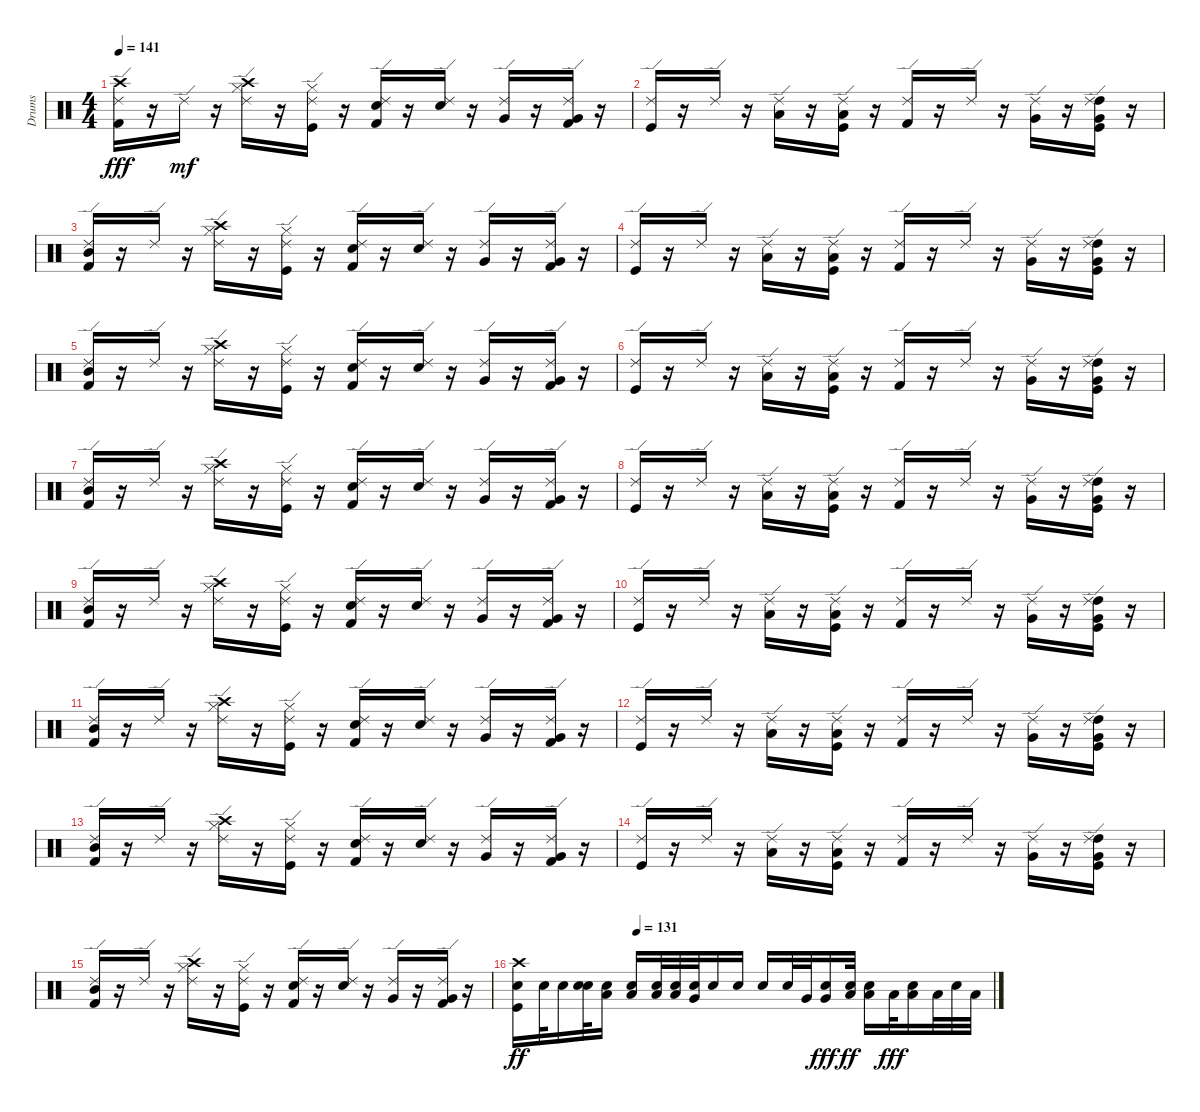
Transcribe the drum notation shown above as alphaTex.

\track ("Drums" "Drums") {instrument percussion}
\staff {score}
\articulation defaults
\ts (4 4)
\tempo 141
\clef neutral
\ks c
("Kick (hit) 2" "Ride (edge) 2" "Crash high (hit)").16{dy fff} r.16 "Ride (edge) 2".16{dy mf} r.16 ("Crash high (hit)" "Hi-Hat (closed)" "Ride (edge) 2").16 r.16 ("Kick (hit)" "Hi-Hat (closed)" "Ride (edge) 2").16 r.16 ("Snare (hit) 2" "Kick (hit) 2" "Ride (edge) 2").16 r.16 ("Snare (hit) 2" "Ride (edge) 2").16 r.16 ("Very Low Tom (hit)" "Ride (edge) 2").16 r.16 ("Kick (hit) 2" "Very Low Tom (hit)" "Ride (edge) 2").16 r.16 |
("Kick (hit)" "Ride (edge) 2").16 r.16 "Ride (edge) 2".16 r.16 ("Low Floor Tom (hit)" "Ride (edge) 2").16 r.16 ("Kick (hit)" "Low Floor Tom (hit)" "Ride (edge) 2").16 r.16 ("Kick (hit) 2" "Ride (edge) 2").16 r.16 "Ride (edge) 2".16 r.16 ("Very Low Tom (hit)" "Ride (edge) 2").16 r.16 ("High Tom (hit)" "Kick (hit)" "Very Low Tom (hit)" "Ride (edge) 2").16 r.16 |
("Kick (hit) 2" "Ride (edge) 2" "Mid Tom (hit)").16 r.16 "Ride (edge) 2".16 r.16 ("Crash high (hit)" "Hi-Hat (closed)" "Ride (edge) 2").16 r.16 ("Kick (hit)" "Hi-Hat (closed)" "Ride (edge) 2").16 r.16 ("Snare (hit) 2" "Kick (hit) 2" "Ride (edge) 2").16 r.16 ("Snare (hit) 2" "Ride (edge) 2").16 r.16 ("Very Low Tom (hit)" "Ride (edge) 2").16 r.16 ("Kick (hit) 2" "Very Low Tom (hit)" "Ride (edge) 2").16 r.16 |
("Kick (hit)" "Ride (edge) 2").16 r.16 "Ride (edge) 2".16 r.16 ("Low Floor Tom (hit)" "Ride (edge) 2").16 r.16 ("Kick (hit)" "Low Floor Tom (hit)" "Ride (edge) 2").16 r.16 ("Kick (hit) 2" "Ride (edge) 2").16 r.16 "Ride (edge) 2".16 r.16 ("Very Low Tom (hit)" "Ride (edge) 2").16 r.16 ("High Tom (hit)" "Kick (hit)" "Very Low Tom (hit)" "Ride (edge) 2").16 r.16 |
("Kick (hit) 2" "Ride (edge) 2" "Mid Tom (hit)").16 r.16 "Ride (edge) 2".16 r.16 ("Crash high (hit)" "Hi-Hat (closed)" "Ride (edge) 2").16 r.16 ("Kick (hit)" "Hi-Hat (closed)" "Ride (edge) 2").16 r.16 ("Snare (hit) 2" "Kick (hit) 2" "Ride (edge) 2").16 r.16 ("Snare (hit) 2" "Ride (edge) 2").16 r.16 ("Very Low Tom (hit)" "Ride (edge) 2").16 r.16 ("Kick (hit) 2" "Very Low Tom (hit)" "Ride (edge) 2").16 r.16 |
("Kick (hit)" "Ride (edge) 2").16 r.16 "Ride (edge) 2".16 r.16 ("Low Floor Tom (hit)" "Ride (edge) 2").16 r.16 ("Kick (hit)" "Low Floor Tom (hit)" "Ride (edge) 2").16 r.16 ("Kick (hit) 2" "Ride (edge) 2").16 r.16 "Ride (edge) 2".16 r.16 ("Very Low Tom (hit)" "Ride (edge) 2").16 r.16 ("High Tom (hit)" "Kick (hit)" "Very Low Tom (hit)" "Ride (edge) 2").16 r.16 |
("Kick (hit) 2" "Ride (edge) 2" "Mid Tom (hit)").16 r.16 "Ride (edge) 2".16 r.16 ("Crash high (hit)" "Hi-Hat (closed)" "Ride (edge) 2").16 r.16 ("Kick (hit)" "Hi-Hat (closed)" "Ride (edge) 2").16 r.16 ("Snare (hit) 2" "Kick (hit) 2" "Ride (edge) 2").16 r.16 ("Snare (hit) 2" "Ride (edge) 2").16 r.16 ("Very Low Tom (hit)" "Ride (edge) 2").16 r.16 ("Kick (hit) 2" "Very Low Tom (hit)" "Ride (edge) 2").16 r.16 |
("Kick (hit)" "Ride (edge) 2").16 r.16 "Ride (edge) 2".16 r.16 ("Low Floor Tom (hit)" "Ride (edge) 2").16 r.16 ("Kick (hit)" "Low Floor Tom (hit)" "Ride (edge) 2").16 r.16 ("Kick (hit) 2" "Ride (edge) 2").16 r.16 "Ride (edge) 2".16 r.16 ("Very Low Tom (hit)" "Ride (edge) 2").16 r.16 ("High Tom (hit)" "Kick (hit)" "Very Low Tom (hit)" "Ride (edge) 2").16 r.16 |
("Kick (hit) 2" "Ride (edge) 2" "Mid Tom (hit)").16 r.16 "Ride (edge) 2".16 r.16 ("Crash high (hit)" "Hi-Hat (closed)" "Ride (edge) 2").16 r.16 ("Kick (hit)" "Hi-Hat (closed)" "Ride (edge) 2").16 r.16 ("Snare (hit) 2" "Kick (hit) 2" "Ride (edge) 2").16 r.16 ("Snare (hit) 2" "Ride (edge) 2").16 r.16 ("Very Low Tom (hit)" "Ride (edge) 2").16 r.16 ("Kick (hit) 2" "Very Low Tom (hit)" "Ride (edge) 2").16 r.16 |
("Kick (hit)" "Ride (edge) 2").16 r.16 "Ride (edge) 2".16 r.16 ("Low Floor Tom (hit)" "Ride (edge) 2").16 r.16 ("Kick (hit)" "Low Floor Tom (hit)" "Ride (edge) 2").16 r.16 ("Kick (hit) 2" "Ride (edge) 2").16 r.16 "Ride (edge) 2".16 r.16 ("Very Low Tom (hit)" "Ride (edge) 2").16 r.16 ("High Tom (hit)" "Kick (hit)" "Very Low Tom (hit)" "Ride (edge) 2").16 r.16 |
("Kick (hit) 2" "Ride (edge) 2" "Mid Tom (hit)").16 r.16 "Ride (edge) 2".16 r.16 ("Crash high (hit)" "Hi-Hat (closed)" "Ride (edge) 2").16 r.16 ("Kick (hit)" "Hi-Hat (closed)" "Ride (edge) 2").16 r.16 ("Snare (hit) 2" "Kick (hit) 2" "Ride (edge) 2").16 r.16 ("Snare (hit) 2" "Ride (edge) 2").16 r.16 ("Very Low Tom (hit)" "Ride (edge) 2").16 r.16 ("Kick (hit) 2" "Very Low Tom (hit)" "Ride (edge) 2").16 r.16 |
("Kick (hit)" "Ride (edge) 2").16 r.16 "Ride (edge) 2".16 r.16 ("Low Floor Tom (hit)" "Ride (edge) 2").16 r.16 ("Kick (hit)" "Low Floor Tom (hit)" "Ride (edge) 2").16 r.16 ("Kick (hit) 2" "Ride (edge) 2").16 r.16 "Ride (edge) 2".16 r.16 ("Very Low Tom (hit)" "Ride (edge) 2").16 r.16 ("High Tom (hit)" "Kick (hit)" "Very Low Tom (hit)" "Ride (edge) 2").16 r.16 |
("Kick (hit) 2" "Ride (edge) 2" "Mid Tom (hit)").16 r.16 "Ride (edge) 2".16 r.16 ("Crash high (hit)" "Hi-Hat (closed)" "Ride (edge) 2").16 r.16 ("Kick (hit)" "Hi-Hat (closed)" "Ride (edge) 2").16 r.16 ("Snare (hit) 2" "Kick (hit) 2" "Ride (edge) 2").16 r.16 ("Snare (hit) 2" "Ride (edge) 2").16 r.16 ("Very Low Tom (hit)" "Ride (edge) 2").16 r.16 ("Kick (hit) 2" "Very Low Tom (hit)" "Ride (edge) 2").16 r.16 |
("Kick (hit)" "Ride (edge) 2").16 r.16 "Ride (edge) 2".16 r.16 ("Low Floor Tom (hit)" "Ride (edge) 2").16 r.16 ("Kick (hit)" "Low Floor Tom (hit)" "Ride (edge) 2").16 r.16 ("Kick (hit) 2" "Ride (edge) 2").16 r.16 "Ride (edge) 2".16 r.16 ("Very Low Tom (hit)" "Ride (edge) 2").16 r.16 ("High Tom (hit)" "Kick (hit)" "Very Low Tom (hit)" "Ride (edge) 2").16 r.16 |
("Kick (hit) 2" "Ride (edge) 2" "Mid Tom (hit)").16 r.16 "Ride (edge) 2".16 r.16 ("Crash high (hit)" "Hi-Hat (closed)" "Ride (edge) 2").16 r.16 ("Kick (hit)" "Hi-Hat (closed)" "Ride (edge) 2").16 r.16 ("Snare (hit) 2" "Kick (hit) 2" "Ride (edge) 2").16 r.16 ("Snare (hit) 2" "Ride (edge) 2").16 r.16 ("Very Low Tom (hit)" "Ride (edge) 2").16 r.16 ("Kick (hit) 2" "Ride (edge) 2" "Very Low Tom (hit)").16 r.16 |
\tempo (131 0.25)
("Crash high (hit)" "Kick (hit)" "Electric Snare (hit)").16{dy ff} "Electric Snare (hit)".32 "Electric Snare (hit)".16 ("Snare (hit) 2" "Electric Snare (hit)").32 ("Electric Snare (hit)" "Low Tom (hit)").16 ("Low Floor Tom (hit)" "Snare (hit) 2").16 ("Low Floor Tom (hit)" "Snare (hit) 2").32 ("Low Floor Tom (hit)" "Snare (hit) 2").32 ("Electric Snare (hit)" "Very Low Tom (hit)").32 "Electric Snare (hit)".16 "Electric Snare (hit)".16 "Electric Snare (hit)".16 "Electric Snare (hit)".32 "Very Low Tom (hit)".32 ("Very Low Tom (hit)" "Snare (hit) 2").16{dy fff} ("Low Floor Tom (hit)" "Electric Snare (hit)").32{dy ff} ("Electric Snare (hit)" "Low Tom (hit)").16 "Low Tom (hit)".32{dy fff} ("Electric Snare (hit)" "Low Tom (hit)").16 "Low Tom (hit)".32 "Electric Snare (hit)".32 "Low Tom (hit)".32
